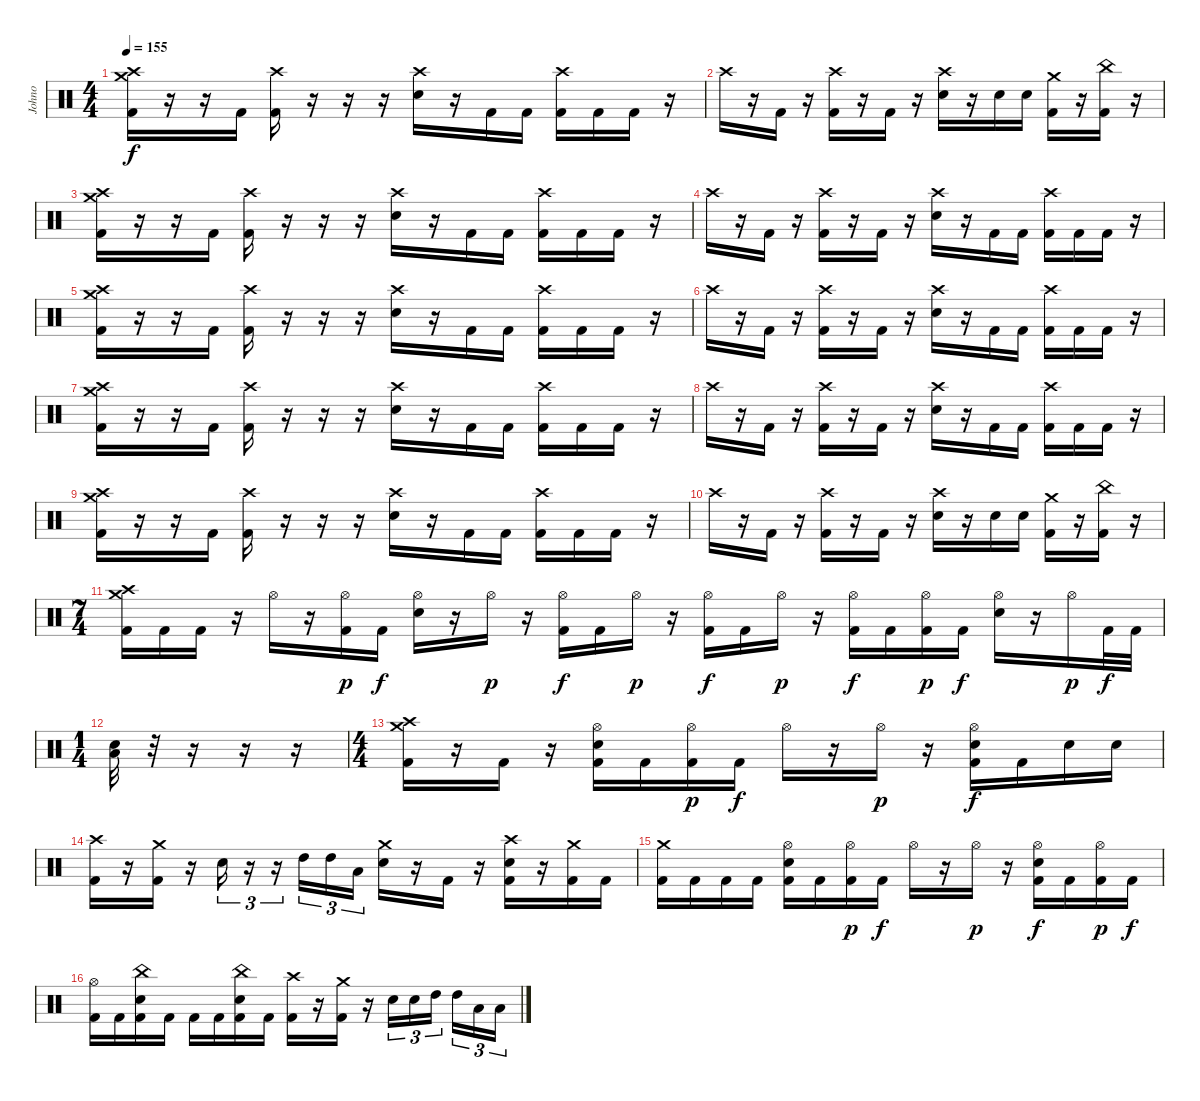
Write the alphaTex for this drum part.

\track ("Johno" "Johno") {instrument percussion}
\staff {score}
\articulation defaults
\ts (4 4)
\tempo 155
\clef neutral
\ks c
("Crash medium (hit)" "Crash high (hit)" "Kick (hit) 2").16{dy f} r.16 r.16 "Kick (hit) 2".16 ("Crash high (hit)" "Kick (hit) 2").16 r.16 r.16 r.16 ("Crash high (hit)" "Electric Snare (hit)").16 r.16 "Kick (hit) 2".16 "Kick (hit) 2".16 ("Crash high (hit)" "Kick (hit) 2").16 "Kick (hit) 2".16 "Kick (hit) 2".16 r.16 |
"Crash high (hit)".16 r.16 "Kick (hit) 2".16 r.16 ("Crash high (hit)" "Kick (hit) 2").16 r.16 "Kick (hit) 2".16 r.16 ("Crash high (hit)" "Electric Snare (hit)").16 r.16 "Electric Snare (hit)".16 "Electric Snare (hit)".16 ("Crash medium (hit)" "Kick (hit) 2").16 r.16 ("China (hit)" "Kick (hit) 2").16 r.16 |
("Crash medium (hit)" "Crash high (hit)" "Kick (hit) 2").16 r.16 r.16 "Kick (hit) 2".16 ("Crash high (hit)" "Kick (hit) 2").16 r.16 r.16 r.16 ("Crash high (hit)" "Electric Snare (hit)").16 r.16 "Kick (hit) 2".16 "Kick (hit) 2".16 ("Crash high (hit)" "Kick (hit) 2").16 "Kick (hit) 2".16 "Kick (hit) 2".16 r.16 |
"Crash high (hit)".16 r.16 "Kick (hit) 2".16 r.16 ("Crash high (hit)" "Kick (hit) 2").16 r.16 "Kick (hit) 2".16 r.16 ("Crash high (hit)" "Electric Snare (hit)").16 r.16 "Kick (hit) 2".16 "Kick (hit) 2".16 ("Crash high (hit)" "Kick (hit) 2").16 "Kick (hit) 2".16 "Kick (hit) 2".16 r.16 |
("Crash medium (hit)" "Crash high (hit)" "Kick (hit) 2").16 r.16 r.16 "Kick (hit) 2".16 ("Crash high (hit)" "Kick (hit) 2").16 r.16 r.16 r.16 ("Crash high (hit)" "Electric Snare (hit)").16 r.16 "Kick (hit) 2".16 "Kick (hit) 2".16 ("Crash high (hit)" "Kick (hit) 2").16 "Kick (hit) 2".16 "Kick (hit) 2".16 r.16 |
"Crash high (hit)".16 r.16 "Kick (hit) 2".16 r.16 ("Crash high (hit)" "Kick (hit) 2").16 r.16 "Kick (hit) 2".16 r.16 ("Crash high (hit)" "Electric Snare (hit)").16 r.16 "Kick (hit) 2".16 "Kick (hit) 2".16 ("Crash high (hit)" "Kick (hit) 2").16 "Kick (hit) 2".16 "Kick (hit) 2".16 r.16 |
("Crash high (hit)" "Crash medium (hit)" "Kick (hit) 2").16 r.16 r.16 "Kick (hit) 2".16 ("Crash high (hit)" "Kick (hit) 2").16 r.16 r.16 r.16 ("Crash high (hit)" "Electric Snare (hit)").16 r.16 "Kick (hit) 2".16 "Kick (hit) 2".16 ("Crash high (hit)" "Kick (hit) 2").16 "Kick (hit) 2".16 "Kick (hit) 2".16 r.16 |
"Crash high (hit)".16 r.16 "Kick (hit) 2".16 r.16 ("Crash high (hit)" "Kick (hit) 2").16 r.16 "Kick (hit) 2".16 r.16 ("Crash high (hit)" "Electric Snare (hit)").16 r.16 "Kick (hit) 2".16 "Kick (hit) 2".16 ("Crash high (hit)" "Kick (hit) 2").16 "Kick (hit) 2".16 "Kick (hit) 2".16 r.16 |
("Crash medium (hit)" "Crash high (hit)" "Kick (hit) 2").16 r.16 r.16 "Kick (hit) 2".16 ("Crash high (hit)" "Kick (hit) 2").16 r.16 r.16 r.16 ("Crash high (hit)" "Electric Snare (hit)").16 r.16 "Kick (hit) 2".16 "Kick (hit) 2".16 ("Crash high (hit)" "Kick (hit) 2").16 "Kick (hit) 2".16 "Kick (hit) 2".16 r.16 |
"Crash high (hit)".16 r.16 "Kick (hit) 2".16 r.16 ("Crash high (hit)" "Kick (hit) 2").16 r.16 "Kick (hit) 2".16 r.16 ("Crash high (hit)" "Electric Snare (hit)").16 r.16 "Electric Snare (hit)".16 "Electric Snare (hit)".16 ("Crash medium (hit)" "Kick (hit) 2").16 r.16 ("China (hit)" "Kick (hit) 2").16 r.16 |
\ts (7 4)
("Crash high (hit)" "Crash medium (hit)" "Kick (hit) 2").16 "Kick (hit) 2".16 "Kick (hit) 2".16 r.16 "Hi-Hat (open)".16 r.16 ("Hi-Hat (open)" "Kick (hit) 2").16{dy p} "Kick (hit) 2".16{dy f} ("Hi-Hat (open)" "Electric Snare (hit)").16 r.16 "Hi-Hat (open)".16{dy p} r.16 ("Hi-Hat (open)" "Kick (hit) 2").16{dy f} "Kick (hit) 2".16 "Hi-Hat (open)".16{dy p} r.16 ("Hi-Hat (open)" "Kick (hit) 2").16{dy f} "Kick (hit) 2".16 "Hi-Hat (open)".16{dy p} r.16 ("Hi-Hat (open)" "Kick (hit) 2").16{dy f} "Kick (hit) 2".16 ("Hi-Hat (open)" "Kick (hit) 2").16{dy p} "Kick (hit) 2".16{dy f} ("Hi-Hat (open)" "Electric Snare (hit)").16 r.16 "Hi-Hat (open)".16{dy p} "Kick (hit) 2".32{dy f} "Kick (hit) 2".32 |
\ts (1 4)
("Low Floor Tom (hit)" "Electric Snare (hit)").32 r.32 r.16 r.16 r.16 |
\ts (4 4)
("Crash medium (hit)" "Crash high (hit)" "Kick (hit) 2").16 r.16 "Kick (hit) 2".16 r.16 ("Hi-Hat (open)" "Electric Snare (hit)" "Kick (hit) 2").16 "Kick (hit) 2".16 ("Hi-Hat (open)" "Kick (hit) 2").16{dy p} "Kick (hit) 2".16{dy f} "Hi-Hat (open)".16 r.16 "Hi-Hat (open)".16{dy p} r.16 ("Hi-Hat (open)" "Electric Snare (hit)" "Kick (hit) 2").16{dy f} "Kick (hit) 2".16 "Electric Snare (hit)".16 "Electric Snare (hit)".16 |
("Crash high (hit)" "Kick (hit) 2").16 r.16 ("Crash medium (hit)" "Kick (hit) 2").16 r.16 "Electric Snare (hit)".16{tu (3 2)} r.16{tu (3 2)} r.16{tu (3 2)} "High Tom (hit)".16{tu (3 2)} "High Tom (hit)".16{tu (3 2)} "Low Floor Tom (hit)".16{tu (3 2)} ("Crash medium (hit)" "Electric Snare (hit)").16 r.16 "Kick (hit) 2".16 r.16 ("Crash high (hit)" "Electric Snare (hit)" "Kick (hit) 2").16 r.16 ("Crash medium (hit)" "Kick (hit) 2").16 "Kick (hit) 2".16 |
("Crash medium (hit)" "Kick (hit) 2").16 "Kick (hit) 2".16 "Kick (hit) 2".16 "Kick (hit) 2".16 ("Hi-Hat (open)" "Electric Snare (hit)" "Kick (hit) 2").16 "Kick (hit) 2".16 ("Hi-Hat (open)" "Kick (hit) 2").16{dy p} "Kick (hit) 2".16{dy f} "Hi-Hat (open)".16 r.16 "Hi-Hat (open)".16{dy p} r.16 ("Hi-Hat (open)" "Electric Snare (hit)" "Kick (hit) 2").16{dy f} "Kick (hit) 2".16 ("Hi-Hat (open)" "Kick (hit) 2").16{dy p} "Kick (hit) 2".16{dy f} |
("Hi-Hat (open)" "Kick (hit) 2").16 "Kick (hit) 2".16 ("China (hit)" "Electric Snare (hit)" "Kick (hit) 2").16 "Kick (hit) 2".16 "Kick (hit) 2".16 "Kick (hit) 2".16 ("China (hit)" "Electric Snare (hit)" "Kick (hit) 2").16 "Kick (hit) 2".16 ("Crash high (hit)" "Kick (hit) 2").16 r.16 ("Crash medium (hit)" "Kick (hit) 2").16 r.16 "Electric Snare (hit)".16{tu (3 2)} "Electric Snare (hit)".16{tu (3 2)} "High Tom (hit)".16{tu (3 2) beam splitsecondary} "High Tom (hit)".16{tu (3 2)} "Low Floor Tom (hit)".16{tu (3 2)} "Low Floor Tom (hit)".16{tu (3 2)}
